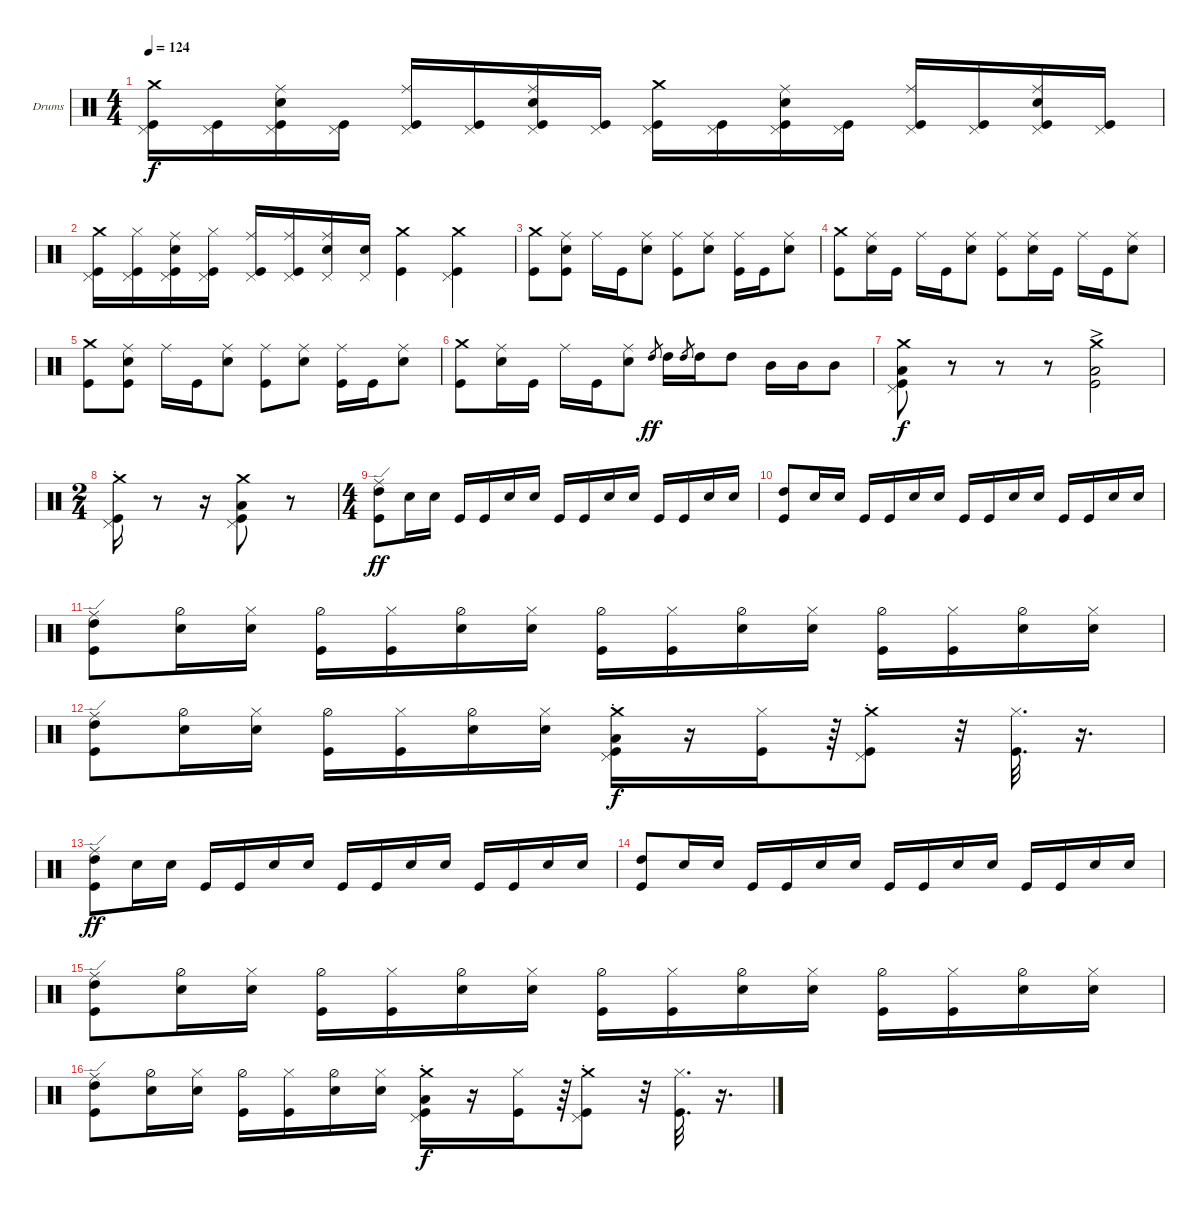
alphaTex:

\defaultSystemsLayout 4
\bracketExtendMode groupsimilarinstruments
\firstSystemTrackNameOrientation horizontal
\otherSystemsTrackNameOrientation horizontal
\track ("Drumkit" "Drums") {instrument percussion}
\staff {score}
\articulation defaults
\ts (4 4)
\tempo 124
\clef neutral
\ks c
("Crash medium (hit)" "Kick (hit)" "Pedal Hi-Hat (hit)").16{dy f} ("Kick (hit)" "Pedal Hi-Hat (hit)").16 ("Snare (hit) 2" "Ride (middle)" "Kick (hit)" "Pedal Hi-Hat (hit)").16 ("Kick (hit)" "Pedal Hi-Hat (hit)").16 ("Ride (middle)" "Kick (hit)" "Pedal Hi-Hat (hit)").16 ("Kick (hit)" "Pedal Hi-Hat (hit)").16 ("Snare (hit) 2" "Ride (middle)" "Kick (hit)" "Pedal Hi-Hat (hit)").16 ("Kick (hit)" "Pedal Hi-Hat (hit)").16 ("Kick (hit)" "Pedal Hi-Hat (hit)" "Crash medium (hit)").16 ("Kick (hit)" "Pedal Hi-Hat (hit)").16 ("Snare (hit) 2" "Ride (middle)" "Kick (hit)" "Pedal Hi-Hat (hit)").16 ("Kick (hit)" "Pedal Hi-Hat (hit)").16 ("Ride (middle)" "Kick (hit)" "Pedal Hi-Hat (hit)").16 ("Kick (hit)" "Pedal Hi-Hat (hit)").16 ("Snare (hit) 2" "Ride (middle)" "Kick (hit)" "Pedal Hi-Hat (hit)").16 ("Kick (hit)" "Pedal Hi-Hat (hit)").16 |
("Crash medium (hit)" "Kick (hit)" "Pedal Hi-Hat (hit)").16 ("Kick (hit)" "Pedal Hi-Hat (hit)" "Hi-Hat (closed)").16 ("Snare (hit) 2" "Ride (middle)" "Kick (hit)" "Pedal Hi-Hat (hit)").16 ("Kick (hit)" "Pedal Hi-Hat (hit)" "Hi-Hat (closed)").16 ("Ride (middle)" "Kick (hit)" "Pedal Hi-Hat (hit)").16 ("Kick (hit)" "Pedal Hi-Hat (hit)" "Ride (middle)").16 ("Snare (hit) 2" "Ride (middle)" "Pedal Hi-Hat (hit)").16 ("Snare (hit) 2" "Pedal Hi-Hat (hit)").16 ("Crash medium (hit)" "Kick (hit)").4 ("Crash medium (hit)" "Kick (hit)" "Pedal Hi-Hat (hit)").4 |
("Kick (hit)" "Crash medium (hit)").8 ("Snare (hit) 2" "Ride (middle)" "Kick (hit)").8 "Ride (middle)".16 "Kick (hit)".16 ("Snare (hit) 2" "Ride (middle)").8 ("Kick (hit)" "Ride (middle)").8 ("Snare (hit) 2" "Ride (middle)").8 ("Kick (hit)" "Ride (middle)").16 "Kick (hit)".16 ("Snare (hit) 2" "Ride (middle)").8 |
("Kick (hit)" "Crash medium (hit)").8 ("Snare (hit) 2" "Ride (middle)").16 "Kick (hit)".16 "Ride (middle)".16 "Kick (hit)".16 ("Snare (hit) 2" "Ride (middle)").8 ("Kick (hit)" "Ride (middle)").8 ("Snare (hit) 2" "Ride (middle)").16 "Kick (hit)".16 "Ride (middle)".16 "Kick (hit)".16 ("Snare (hit) 2" "Ride (middle)").8 |
("Kick (hit)" "Crash medium (hit)").8 ("Snare (hit) 2" "Ride (middle)" "Kick (hit)").8 "Ride (middle)".16 "Kick (hit)".16 ("Snare (hit) 2" "Ride (middle)").8 ("Kick (hit)" "Ride (middle)").8 ("Snare (hit) 2" "Ride (middle)").8 ("Kick (hit)" "Ride (middle)").16 "Kick (hit)".16 ("Snare (hit) 2" "Ride (middle)").8 |
("Kick (hit)" "Crash medium (hit)").8 ("Snare (hit) 2" "Ride (middle)").16 "Kick (hit)".16 "Ride (middle)".16 "Kick (hit)".16 ("Snare (hit) 2" "Ride (middle)").8 "High Tom (hit)".8{gr dy ff} "High Tom (hit)".16 "High Tom (hit)".8{gr} "High Tom (hit)".16 "High Tom (hit)".8 "Mid Tom (hit)".16 "Mid Tom (hit)".16 "Mid Tom (hit)".8 |
("Kick (hit)" "Crash medium (hit)" "Pedal Hi-Hat (hit)" "Low Tom (hit)").8{dy f} r.8 r.8 r.8 ("Kick (hit)"{ac} "Crash medium (hit)"{ac} "Low Tom (hit)"{ac}).2 |
\ts (2 4)
("Kick (hit)" "Crash medium (hit)"{st} "Pedal Hi-Hat (hit)").16 r.8 r.16 ("Pedal Hi-Hat (hit)" "Kick (hit)" "Low Tom (hit)" "Crash medium (hit)").8 r.8 |
\ts (4 4)
("Kick (hit)" "Ride (edge)" "High Tom (hit)").8{dy ff} "Snare (hit) 2".16 "Snare (hit) 2".16 "Kick (hit)".16 "Kick (hit)".16 "Snare (hit) 2".16 "Snare (hit) 2".16 "Kick (hit)".16 "Kick (hit)".16 "Snare (hit) 2".16 "Snare (hit) 2".16 "Kick (hit)".16 "Kick (hit)".16 "Snare (hit) 2".16 "Snare (hit) 2".16 |
("Kick (hit)" "High Tom (hit)").8 "Snare (hit) 2".16 "Snare (hit) 2".16 "Kick (hit)".16 "Kick (hit)".16 "Snare (hit) 2".16 "Snare (hit) 2".16 "Kick (hit)".16 "Kick (hit)".16 "Snare (hit) 2".16 "Snare (hit) 2".16 "Kick (hit)".16 "Kick (hit)".16 "Snare (hit) 2".16 "Snare (hit) 2".16 |
("Kick (hit)" "Ride (edge)" "High Tom (hit)").8 ("Snare (hit) 2" "Hi-Hat (half)").16 ("Snare (hit) 2" "Hi-Hat (closed)").16 ("Kick (hit)" "Hi-Hat (half)").16 ("Kick (hit)" "Hi-Hat (closed)").16 ("Snare (hit) 2" "Hi-Hat (half)").16 ("Snare (hit) 2" "Hi-Hat (closed)").16 ("Kick (hit)" "Hi-Hat (half)").16 ("Kick (hit)" "Hi-Hat (closed)").16 ("Snare (hit) 2" "Hi-Hat (half)").16 ("Snare (hit) 2" "Hi-Hat (closed)").16 ("Kick (hit)" "Hi-Hat (half)").16 ("Kick (hit)" "Hi-Hat (closed)").16 ("Snare (hit) 2" "Hi-Hat (half)").16 ("Snare (hit) 2" "Hi-Hat (closed)").16 |
("Kick (hit)" "Ride (edge)" "High Tom (hit)").8 ("Snare (hit) 2" "Hi-Hat (half)").16 ("Snare (hit) 2" "Hi-Hat (closed)").16 ("Kick (hit)" "Hi-Hat (half)").16 ("Kick (hit)" "Hi-Hat (closed)").16 ("Snare (hit) 2" "Hi-Hat (half)").16 ("Snare (hit) 2" "Hi-Hat (closed)").16 ("Kick (hit)" "Crash medium (hit)"{st} "Pedal Hi-Hat (hit)" "Low Tom (hit)").16{dy f} r.16 ("Hi-Hat (closed)" "Kick (hit)").16 r.64 ("Kick (hit)" "Crash medium (hit)"{st} "Pedal Hi-Hat (hit)").8 r.32 ("Hi-Hat (closed)" "Kick (hit)").32{d} r.16{d} |
("Kick (hit)" "Ride (edge)" "High Tom (hit)").8{dy ff} "Snare (hit) 2".16 "Snare (hit) 2".16 "Kick (hit)".16 "Kick (hit)".16 "Snare (hit) 2".16 "Snare (hit) 2".16 "Kick (hit)".16 "Kick (hit)".16 "Snare (hit) 2".16 "Snare (hit) 2".16 "Kick (hit)".16 "Kick (hit)".16 "Snare (hit) 2".16 "Snare (hit) 2".16 |
("Kick (hit)" "High Tom (hit)").8 "Snare (hit) 2".16 "Snare (hit) 2".16 "Kick (hit)".16 "Kick (hit)".16 "Snare (hit) 2".16 "Snare (hit) 2".16 "Kick (hit)".16 "Kick (hit)".16 "Snare (hit) 2".16 "Snare (hit) 2".16 "Kick (hit)".16 "Kick (hit)".16 "Snare (hit) 2".16 "Snare (hit) 2".16 |
("Kick (hit)" "Ride (edge)" "High Tom (hit)").8 ("Snare (hit) 2" "Hi-Hat (half)").16 ("Snare (hit) 2" "Hi-Hat (closed)").16 ("Kick (hit)" "Hi-Hat (half)").16 ("Kick (hit)" "Hi-Hat (closed)").16 ("Snare (hit) 2" "Hi-Hat (half)").16 ("Snare (hit) 2" "Hi-Hat (closed)").16 ("Kick (hit)" "Hi-Hat (half)").16 ("Kick (hit)" "Hi-Hat (closed)").16 ("Snare (hit) 2" "Hi-Hat (half)").16 ("Snare (hit) 2" "Hi-Hat (closed)").16 ("Kick (hit)" "Hi-Hat (half)").16 ("Kick (hit)" "Hi-Hat (closed)").16 ("Snare (hit) 2" "Hi-Hat (half)").16 ("Snare (hit) 2" "Hi-Hat (closed)").16 |
("Kick (hit)" "Ride (edge)" "High Tom (hit)").8 ("Snare (hit) 2" "Hi-Hat (half)").16 ("Snare (hit) 2" "Hi-Hat (closed)").16 ("Kick (hit)" "Hi-Hat (half)").16 ("Kick (hit)" "Hi-Hat (closed)").16 ("Snare (hit) 2" "Hi-Hat (half)").16 ("Snare (hit) 2" "Hi-Hat (closed)").16 ("Kick (hit)" "Crash medium (hit)"{st} "Pedal Hi-Hat (hit)" "Low Tom (hit)").16{dy f} r.16 ("Hi-Hat (closed)" "Kick (hit)").16 r.64 ("Kick (hit)" "Crash medium (hit)"{st} "Pedal Hi-Hat (hit)").8 r.32 ("Hi-Hat (closed)" "Kick (hit)").32{d} r.16{d}
